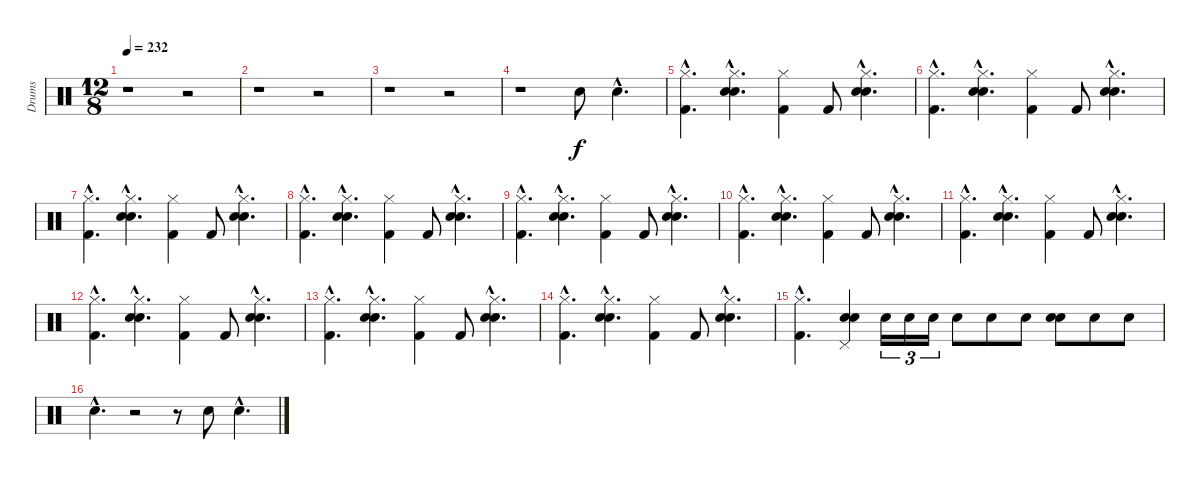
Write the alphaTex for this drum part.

\track ("Drums" "Drums") {instrument percussion}
\staff {score}
\articulation defaults
\ts (12 8)
\tempo 232
\clef neutral
\ks c
r.1{dy f} r.2 |
r.1 r.2 |
r.1 r.2 |
r.1 "Snare (hit) 2".8 "Snare (hit) 2"{hac}.4{d} |
("Hi-Hat (closed)"{hac} "Kick (hit) 2"{hac}).4{d} ("Hand Clap (hit)"{hac} "Hi-Hat (closed)"{hac} "Snare (hit) 2"{hac}).4{d} ("Hi-Hat (closed)" "Kick (hit) 2").4 "Kick (hit) 2".8 ("Hand Clap (hit)"{hac} "Hi-Hat (closed)"{hac} "Snare (hit) 2"{hac}).4{d} |
("Hi-Hat (closed)"{hac} "Kick (hit) 2"{hac}).4{d} ("Hand Clap (hit)"{hac} "Hi-Hat (closed)"{hac} "Snare (hit) 2"{hac}).4{d} ("Hi-Hat (closed)" "Kick (hit) 2").4 "Kick (hit) 2".8 ("Hand Clap (hit)"{hac} "Hi-Hat (closed)"{hac} "Snare (hit) 2"{hac}).4{d} |
("Hi-Hat (closed)"{hac} "Kick (hit) 2"{hac}).4{d} ("Hand Clap (hit)"{hac} "Hi-Hat (closed)"{hac} "Snare (hit) 2"{hac}).4{d} ("Hi-Hat (closed)" "Kick (hit) 2").4 "Kick (hit) 2".8 ("Hand Clap (hit)"{hac} "Hi-Hat (closed)"{hac} "Snare (hit) 2"{hac}).4{d} |
("Hi-Hat (closed)"{hac} "Kick (hit) 2"{hac}).4{d} ("Hand Clap (hit)"{hac} "Hi-Hat (closed)"{hac} "Snare (hit) 2"{hac}).4{d} ("Hi-Hat (closed)" "Kick (hit) 2").4 "Kick (hit) 2".8 ("Hand Clap (hit)"{hac} "Hi-Hat (closed)"{hac} "Snare (hit) 2"{hac}).4{d} |
("Hi-Hat (closed)"{hac} "Kick (hit) 2"{hac}).4{d} ("Hand Clap (hit)"{hac} "Hi-Hat (closed)"{hac} "Snare (hit) 2"{hac}).4{d} ("Hi-Hat (closed)" "Kick (hit) 2").4 "Kick (hit) 2".8 ("Hand Clap (hit)"{hac} "Hi-Hat (closed)"{hac} "Snare (hit) 2"{hac}).4{d} |
("Hi-Hat (closed)"{hac} "Kick (hit) 2"{hac}).4{d} ("Hand Clap (hit)"{hac} "Hi-Hat (closed)"{hac} "Snare (hit) 2"{hac}).4{d} ("Hi-Hat (closed)" "Kick (hit) 2").4 "Kick (hit) 2".8 ("Hand Clap (hit)"{hac} "Hi-Hat (closed)"{hac} "Snare (hit) 2"{hac}).4{d} |
("Hi-Hat (closed)"{hac} "Kick (hit) 2"{hac}).4{d} ("Hand Clap (hit)"{hac} "Hi-Hat (closed)"{hac} "Snare (hit) 2"{hac}).4{d} ("Hi-Hat (closed)" "Kick (hit) 2").4 "Kick (hit) 2".8 ("Hand Clap (hit)"{hac} "Hi-Hat (closed)"{hac} "Snare (hit) 2"{hac}).4{d} |
("Hi-Hat (closed)"{hac} "Kick (hit) 2"{hac}).4{d} ("Hand Clap (hit)"{hac} "Hi-Hat (closed)"{hac} "Snare (hit) 2"{hac}).4{d} ("Hi-Hat (closed)" "Kick (hit) 2").4 "Kick (hit) 2".8 ("Hand Clap (hit)"{hac} "Hi-Hat (closed)"{hac} "Snare (hit) 2"{hac}).4{d} |
("Hi-Hat (closed)"{hac} "Kick (hit) 2"{hac}).4{d} ("Hand Clap (hit)"{hac} "Hi-Hat (closed)"{hac} "Snare (hit) 2"{hac}).4{d} ("Hi-Hat (closed)" "Kick (hit) 2").4 "Kick (hit) 2".8 ("Hand Clap (hit)"{hac} "Hi-Hat (closed)"{hac} "Snare (hit) 2"{hac}).4{d} |
("Hi-Hat (closed)"{hac} "Kick (hit) 2"{hac}).4{d} ("Hand Clap (hit)"{hac} "Hi-Hat (closed)"{hac} "Snare (hit) 2"{hac}).4{d} ("Hi-Hat (closed)" "Kick (hit) 2").4 "Kick (hit) 2".8 ("Hand Clap (hit)"{hac} "Hi-Hat (closed)"{hac} "Snare (hit) 2"{hac}).4{d} |
("Hi-Hat (closed)"{hac} "Kick (hit) 2"{hac}).4{d} ("Hand Clap (hit)" "Pedal Hi-Hat (hit)" "Snare (hit) 2").4 "Snare (hit) 2".16{tu (3 2)} "Snare (hit) 2".16{tu (3 2)} "Snare (hit) 2".16{tu (3 2)} "Snare (hit) 2".8 "Snare (hit) 2".8 "Snare (hit) 2".8 ("Hand Clap (hit)" "Snare (hit) 2").8 "Snare (hit) 2".8 "Snare (hit) 2".8 |
"Snare (hit) 2"{hac}.4{d} r.2 r.8 "Snare (hit) 2".8 "Snare (hit) 2"{hac}.4{d}
